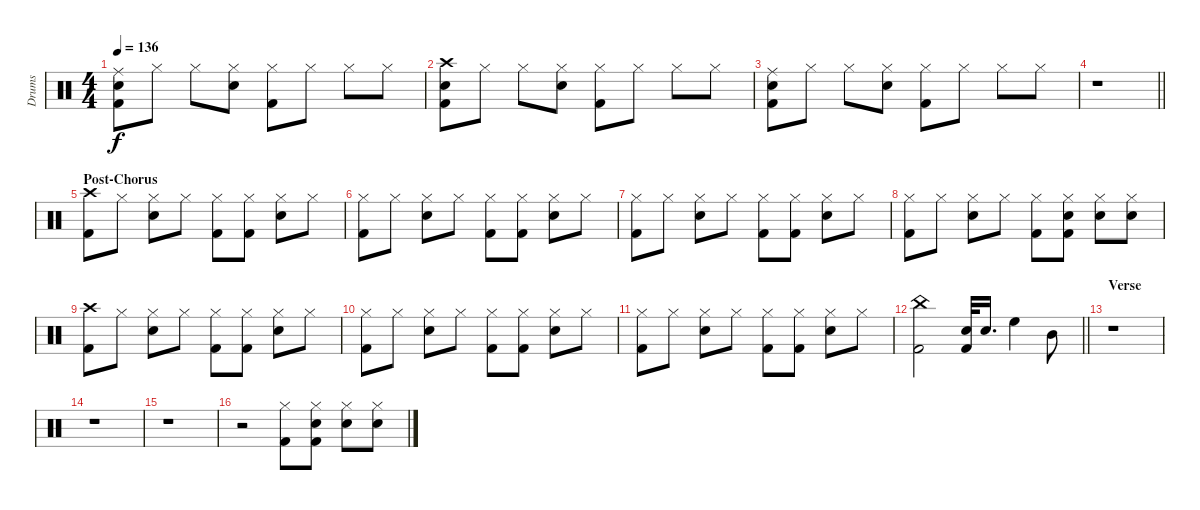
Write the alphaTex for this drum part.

\track ("Drums" "Drums") {instrument percussion}
\staff {score}
\articulation defaults
\ts (4 4)
\tempo 136
\clef neutral
\ks c
("Ride (middle)" "Electric Snare (hit)" "Kick (hit) 2").8{dy f} "Hi-Hat (closed)".8 "Hi-Hat (closed)".8 ("Hi-Hat (closed)" "Electric Snare (hit)").8 ("Hi-Hat (closed)" "Kick (hit) 2").8 "Hi-Hat (closed)".8 "Hi-Hat (closed)".8 "Hi-Hat (closed)".8 |
("Crash high (hit)" "Electric Snare (hit)" "Kick (hit) 2").8 "Hi-Hat (closed)".8 "Hi-Hat (closed)".8 ("Hi-Hat (closed)" "Electric Snare (hit)").8 ("Hi-Hat (closed)" "Kick (hit) 2").8 "Hi-Hat (closed)".8 "Hi-Hat (closed)".8 "Hi-Hat (closed)".8 |
("Ride (middle)" "Electric Snare (hit)" "Kick (hit) 2").8 "Hi-Hat (closed)".8 "Hi-Hat (closed)".8 ("Hi-Hat (closed)" "Electric Snare (hit)").8 ("Hi-Hat (closed)" "Kick (hit) 2").8 "Hi-Hat (closed)".8 "Hi-Hat (closed)".8 "Hi-Hat (closed)".8 |
\barLineRight lightlight
r.1 |
\section ("" "Post-Chorus")
("Crash high (hit)" "Kick (hit) 2").8 "Hi-Hat (closed)".8 ("Hi-Hat (closed)" "Electric Snare (hit)").8 "Hi-Hat (closed)".8 ("Hi-Hat (closed)" "Kick (hit) 2").8 ("Hi-Hat (closed)" "Kick (hit) 2").8 ("Hi-Hat (closed)" "Electric Snare (hit)").8 "Hi-Hat (closed)".8 |
("Hi-Hat (closed)" "Kick (hit) 2").8 "Hi-Hat (closed)".8 ("Hi-Hat (closed)" "Electric Snare (hit)").8 "Hi-Hat (closed)".8 ("Hi-Hat (closed)" "Kick (hit) 2").8 ("Hi-Hat (closed)" "Kick (hit) 2").8 ("Hi-Hat (closed)" "Electric Snare (hit)").8 "Hi-Hat (closed)".8 |
("Hi-Hat (closed)" "Kick (hit) 2").8 "Hi-Hat (closed)".8 ("Hi-Hat (closed)" "Electric Snare (hit)").8 "Hi-Hat (closed)".8 ("Hi-Hat (closed)" "Kick (hit) 2").8 ("Hi-Hat (closed)" "Kick (hit) 2").8 ("Hi-Hat (closed)" "Electric Snare (hit)").8 "Hi-Hat (closed)".8 |
("Hi-Hat (closed)" "Kick (hit) 2").8 "Hi-Hat (closed)".8 ("Hi-Hat (closed)" "Electric Snare (hit)").8 "Hi-Hat (closed)".8 ("Hi-Hat (closed)" "Kick (hit) 2").8 ("Hi-Hat (closed)" "Electric Snare (hit)" "Kick (hit) 2").8 ("Hi-Hat (closed)" "Electric Snare (hit)").8 ("Hi-Hat (closed)" "Electric Snare (hit)").8 |
("Crash high (hit)" "Kick (hit) 2").8 "Hi-Hat (closed)".8 ("Hi-Hat (closed)" "Electric Snare (hit)").8 "Hi-Hat (closed)".8 ("Hi-Hat (closed)" "Kick (hit) 2").8 ("Hi-Hat (closed)" "Kick (hit) 2").8 ("Hi-Hat (closed)" "Electric Snare (hit)").8 "Hi-Hat (closed)".8 |
("Hi-Hat (closed)" "Kick (hit) 2").8 "Hi-Hat (closed)".8 ("Hi-Hat (closed)" "Electric Snare (hit)").8 "Hi-Hat (closed)".8 ("Hi-Hat (closed)" "Kick (hit) 2").8 ("Hi-Hat (closed)" "Kick (hit) 2").8 ("Hi-Hat (closed)" "Electric Snare (hit)").8 "Hi-Hat (closed)".8 |
("Hi-Hat (closed)" "Kick (hit) 2").8 "Hi-Hat (closed)".8 ("Hi-Hat (closed)" "Electric Snare (hit)").8 "Hi-Hat (closed)".8 ("Hi-Hat (closed)" "Kick (hit) 2").8 ("Hi-Hat (closed)" "Kick (hit) 2").8 ("Hi-Hat (closed)" "Electric Snare (hit)").8 "Hi-Hat (closed)".8 |
\barLineRight lightlight
("China (hit)" "Kick (hit) 2").2 ("Electric Snare (hit)" "Kick (hit) 2").32 "Electric Snare (hit)".16{d} "High Floor Tom (hit)".4 "Mid Tom (hit)".8 |
\section ("" "Verse")
r.1 |
r.1 |
r.1 |
r.2 ("Hi-Hat (closed)" "Kick (hit) 2").8 ("Hi-Hat (closed)" "Electric Snare (hit)" "Kick (hit) 2").8 ("Hi-Hat (closed)" "Electric Snare (hit)").8 ("Hi-Hat (closed)" "Electric Snare (hit)").8
